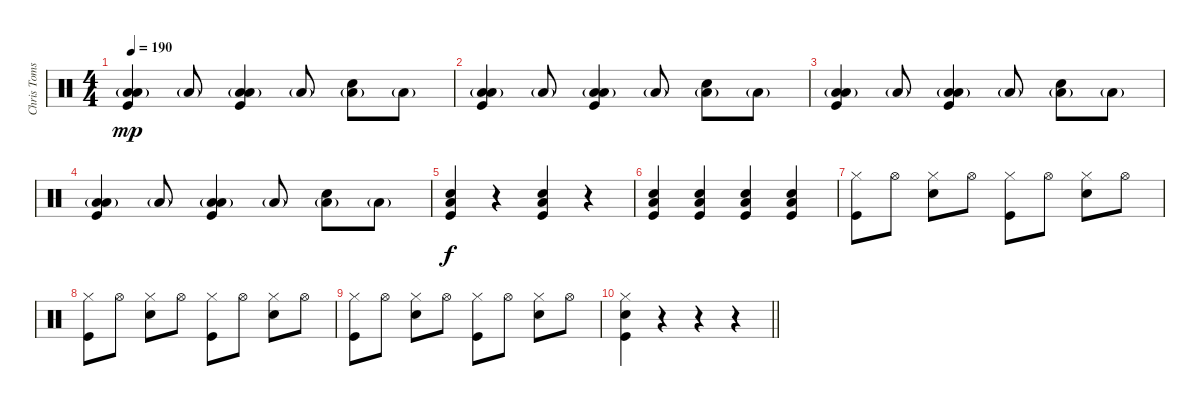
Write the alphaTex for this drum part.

\track ("Chris Tomson - Drums" "Chris Toms") {instrument percussion}
\staff {score}
\articulation defaults
\ts (4 4)
\tempo 190
\clef neutral
\ks c
("Kick (hit)" "Low Tom (hit)" "Low Floor Tom (hit)"{g}).4{dy mp} "Low Floor Tom (hit)"{g}.8 ("Kick (hit)" "Low Tom (hit)" "Low Floor Tom (hit)"{g}).4 "Low Floor Tom (hit)"{g}.8 ("Snare (hit) 2" "Low Floor Tom (hit)"{g}).8 "Low Floor Tom (hit)"{g}.8 |
("Kick (hit)" "Low Tom (hit)" "Low Floor Tom (hit)"{g}).4 "Low Floor Tom (hit)"{g}.8 ("Kick (hit)" "Low Tom (hit)" "Low Floor Tom (hit)"{g}).4 "Low Floor Tom (hit)"{g}.8 ("Snare (hit) 2" "Low Floor Tom (hit)"{g}).8 "Low Floor Tom (hit)"{g}.8 |
("Kick (hit)" "Low Tom (hit)" "Low Floor Tom (hit)"{g}).4 "Low Floor Tom (hit)"{g}.8 ("Kick (hit)" "Low Tom (hit)" "Low Floor Tom (hit)"{g}).4 "Low Floor Tom (hit)"{g}.8 ("Snare (hit) 2" "Low Floor Tom (hit)"{g}).8 "Low Floor Tom (hit)"{g}.8 |
("Kick (hit)" "Low Tom (hit)" "Low Floor Tom (hit)"{g}).4 "Low Floor Tom (hit)"{g}.8 ("Kick (hit)" "Low Tom (hit)" "Low Floor Tom (hit)"{g}).4 "Low Floor Tom (hit)"{g}.8 ("Snare (hit) 2" "Low Floor Tom (hit)"{g}).8 "Low Floor Tom (hit)"{g}.8 |
("Kick (hit)" "Snare (hit) 2" "Low Floor Tom (hit)").4{dy f} r.4 ("Kick (hit)" "Snare (hit) 2" "Low Floor Tom (hit)").4 r.4 |
("Kick (hit)" "Snare (hit) 2" "Low Floor Tom (hit)").4 ("Kick (hit)" "Snare (hit) 2" "Low Floor Tom (hit)").4 ("Kick (hit)" "Snare (hit) 2" "Low Floor Tom (hit)").4 ("Kick (hit)" "Snare (hit) 2" "Low Floor Tom (hit)").4 |
("Kick (hit)" "Hi-Hat (closed)").8 "Hi-Hat (open)".8 ("Snare (hit) 2" "Hi-Hat (closed)").8 "Hi-Hat (open)".8 ("Kick (hit)" "Hi-Hat (closed)").8 "Hi-Hat (open)".8 ("Snare (hit) 2" "Hi-Hat (closed)").8 "Hi-Hat (open)".8 |
("Kick (hit)" "Hi-Hat (closed)").8 "Hi-Hat (open)".8 ("Snare (hit) 2" "Hi-Hat (closed)").8 "Hi-Hat (open)".8 ("Kick (hit)" "Hi-Hat (closed)").8 "Hi-Hat (open)".8 ("Snare (hit) 2" "Hi-Hat (closed)").8 "Hi-Hat (open)".8 |
("Kick (hit)" "Hi-Hat (closed)").8 "Hi-Hat (open)".8 ("Snare (hit) 2" "Hi-Hat (closed)").8 "Hi-Hat (open)".8 ("Kick (hit)" "Hi-Hat (closed)").8 "Hi-Hat (open)".8 ("Snare (hit) 2" "Hi-Hat (closed)").8 "Hi-Hat (open)".8 |
\barLineRight lightlight
("Kick (hit)" "Snare (hit) 2" "Hi-Hat (closed)").4 r.4 r.4 r.4
